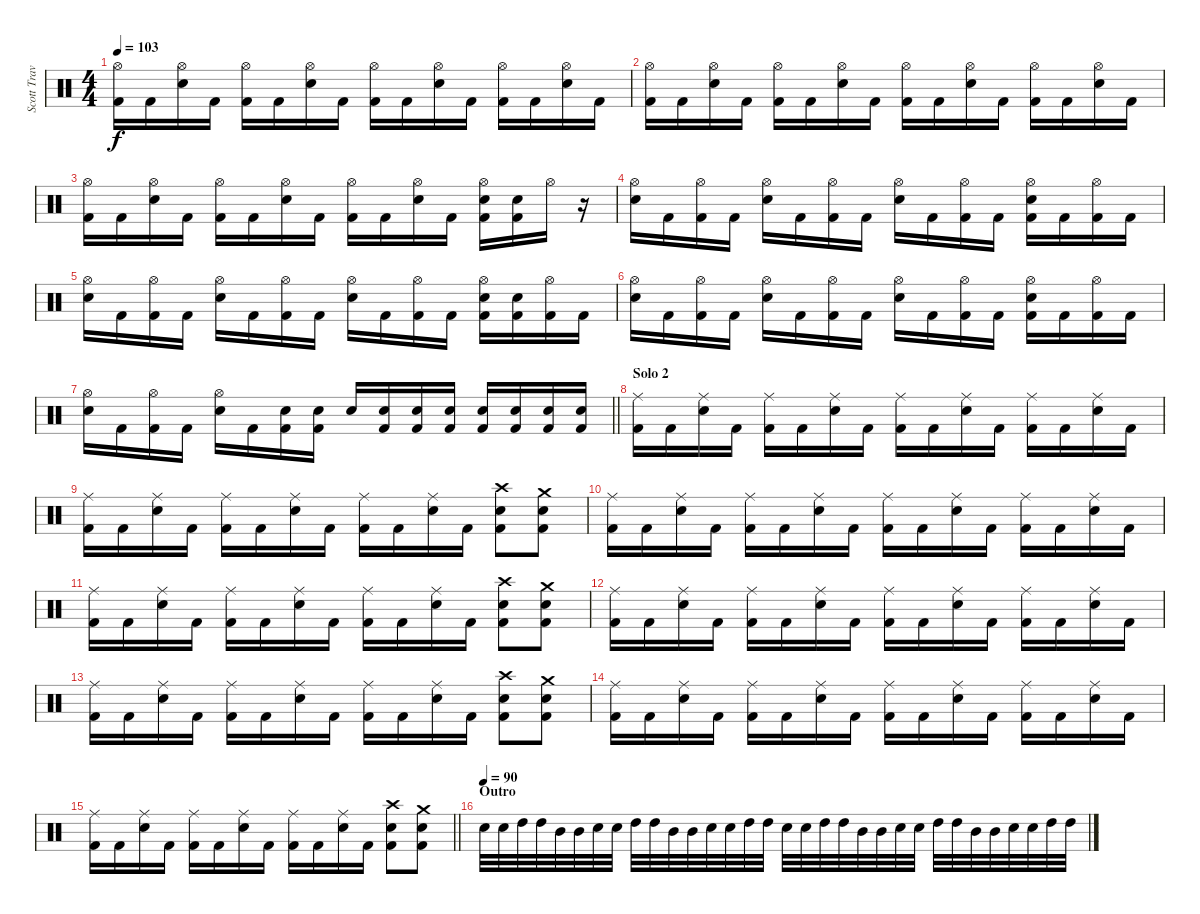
\track ("Scott Travis" "Scott Trav") {instrument percussion}
\staff {score}
\articulation defaults
\ts (4 4)
\tempo 103
\clef neutral
\ks c
("Hi-Hat (open)" "Kick (hit) 2").16{dy f} "Kick (hit) 2".16 ("Hi-Hat (open)" "Snare (hit) 2").16 "Kick (hit) 2".16 ("Hi-Hat (open)" "Kick (hit) 2").16 "Kick (hit) 2".16 ("Hi-Hat (open)" "Snare (hit) 2").16 "Kick (hit) 2".16 ("Hi-Hat (open)" "Kick (hit) 2").16 "Kick (hit) 2".16 ("Hi-Hat (open)" "Snare (hit) 2").16 "Kick (hit) 2".16 ("Hi-Hat (open)" "Kick (hit) 2").16 "Kick (hit) 2".16 ("Hi-Hat (open)" "Snare (hit) 2").16 "Kick (hit) 2".16 |
("Hi-Hat (open)" "Kick (hit) 2").16 "Kick (hit) 2".16 ("Hi-Hat (open)" "Snare (hit) 2").16 "Kick (hit) 2".16 ("Hi-Hat (open)" "Kick (hit) 2").16 "Kick (hit) 2".16 ("Hi-Hat (open)" "Snare (hit) 2").16 "Kick (hit) 2".16 ("Hi-Hat (open)" "Kick (hit) 2").16 "Kick (hit) 2".16 ("Hi-Hat (open)" "Snare (hit) 2").16 "Kick (hit) 2".16 ("Hi-Hat (open)" "Kick (hit) 2").16 "Kick (hit) 2".16 ("Hi-Hat (open)" "Snare (hit) 2").16 "Kick (hit) 2".16 |
("Hi-Hat (open)" "Kick (hit) 2").16 "Kick (hit) 2".16 ("Hi-Hat (open)" "Snare (hit) 2").16 "Kick (hit) 2".16 ("Hi-Hat (open)" "Kick (hit) 2").16 "Kick (hit) 2".16 ("Hi-Hat (open)" "Snare (hit) 2").16 "Kick (hit) 2".16 ("Hi-Hat (open)" "Kick (hit) 2").16 "Kick (hit) 2".16 ("Hi-Hat (open)" "Snare (hit) 2").16 "Kick (hit) 2".16 ("Hi-Hat (open)" "Snare (hit) 2" "Kick (hit) 2").16 ("Snare (hit) 2" "Kick (hit) 2").16 "Hi-Hat (open)".16 r.16 |
("Hi-Hat (open)" "Snare (hit) 2").16 "Kick (hit) 2".16 ("Hi-Hat (open)" "Kick (hit) 2").16 "Kick (hit) 2".16 ("Hi-Hat (open)" "Snare (hit) 2").16 "Kick (hit) 2".16 ("Hi-Hat (open)" "Kick (hit) 2").16 "Kick (hit) 2".16 ("Hi-Hat (open)" "Snare (hit) 2").16 "Kick (hit) 2".16 ("Hi-Hat (open)" "Kick (hit) 2").16 "Kick (hit) 2".16 ("Hi-Hat (open)" "Snare (hit) 2" "Kick (hit) 2").16 "Kick (hit) 2".16 ("Hi-Hat (open)" "Kick (hit) 2").16 "Kick (hit) 2".16 |
("Hi-Hat (open)" "Snare (hit) 2").16 "Kick (hit) 2".16 ("Hi-Hat (open)" "Kick (hit) 2").16 "Kick (hit) 2".16 ("Hi-Hat (open)" "Snare (hit) 2").16 "Kick (hit) 2".16 ("Hi-Hat (open)" "Kick (hit) 2").16 "Kick (hit) 2".16 ("Hi-Hat (open)" "Snare (hit) 2").16 "Kick (hit) 2".16 ("Hi-Hat (open)" "Kick (hit) 2").16 "Kick (hit) 2".16 ("Hi-Hat (open)" "Snare (hit) 2" "Kick (hit) 2").16 ("Snare (hit) 2" "Kick (hit) 2").16 ("Hi-Hat (open)" "Kick (hit) 2").16 "Kick (hit) 2".16 |
("Hi-Hat (open)" "Snare (hit) 2").16 "Kick (hit) 2".16 ("Hi-Hat (open)" "Kick (hit) 2").16 "Kick (hit) 2".16 ("Hi-Hat (open)" "Snare (hit) 2").16 "Kick (hit) 2".16 ("Hi-Hat (open)" "Kick (hit) 2").16 "Kick (hit) 2".16 ("Hi-Hat (open)" "Snare (hit) 2").16 "Kick (hit) 2".16 ("Hi-Hat (open)" "Kick (hit) 2").16 "Kick (hit) 2".16 ("Hi-Hat (open)" "Snare (hit) 2" "Kick (hit) 2").16 "Kick (hit) 2".16 ("Hi-Hat (open)" "Kick (hit) 2").16 "Kick (hit) 2".16 |
\barLineRight lightlight
("Hi-Hat (open)" "Snare (hit) 2").16 "Kick (hit) 2".16 ("Hi-Hat (open)" "Kick (hit) 2").16 "Kick (hit) 2".16 ("Hi-Hat (open)" "Snare (hit) 2").16 "Kick (hit) 2".16 ("Snare (hit) 2" "Kick (hit) 2").16 ("Snare (hit) 2" "Kick (hit) 2").16 "Snare (hit) 2".16 ("Snare (hit) 2" "Kick (hit) 2").16 ("Snare (hit) 2" "Kick (hit) 2").16 ("Snare (hit) 2" "Kick (hit) 2").16 ("Snare (hit) 2" "Kick (hit) 2").16 ("Snare (hit) 2" "Kick (hit) 2").16 ("Snare (hit) 2" "Kick (hit) 2").16 ("Snare (hit) 2" "Kick (hit) 2").16 |
\section ("" "Solo 2")
("Ride (middle)" "Kick (hit) 2").16 "Kick (hit) 2".16 ("Ride (middle)" "Snare (hit) 2").16 "Kick (hit) 2".16 ("Ride (middle)" "Kick (hit) 2").16 "Kick (hit) 2".16 ("Ride (middle)" "Snare (hit) 2").16 "Kick (hit) 2".16 ("Ride (middle)" "Kick (hit) 2").16 "Kick (hit) 2".16 ("Ride (middle)" "Snare (hit) 2").16 "Kick (hit) 2".16 ("Ride (middle)" "Kick (hit) 2").16 "Kick (hit) 2".16 ("Ride (middle)" "Snare (hit) 2").16 "Kick (hit) 2".16 |
("Ride (middle)" "Kick (hit) 2").16 "Kick (hit) 2".16 ("Ride (middle)" "Snare (hit) 2").16 "Kick (hit) 2".16 ("Ride (middle)" "Kick (hit) 2").16 "Kick (hit) 2".16 ("Ride (middle)" "Snare (hit) 2").16 "Kick (hit) 2".16 ("Ride (middle)" "Kick (hit) 2").16 "Kick (hit) 2".16 ("Ride (middle)" "Snare (hit) 2").16 "Kick (hit) 2".16 ("Crash high (hit)" "Snare (hit) 2" "Kick (hit) 2").8 ("Crash medium (hit)" "Snare (hit) 2" "Kick (hit) 2").8 |
("Ride (middle)" "Kick (hit) 2").16 "Kick (hit) 2".16 ("Ride (middle)" "Snare (hit) 2").16 "Kick (hit) 2".16 ("Ride (middle)" "Kick (hit) 2").16 "Kick (hit) 2".16 ("Ride (middle)" "Snare (hit) 2").16 "Kick (hit) 2".16 ("Ride (middle)" "Kick (hit) 2").16 "Kick (hit) 2".16 ("Ride (middle)" "Snare (hit) 2").16 "Kick (hit) 2".16 ("Ride (middle)" "Kick (hit) 2").16 "Kick (hit) 2".16 ("Ride (middle)" "Snare (hit) 2").16 "Kick (hit) 2".16 |
("Ride (middle)" "Kick (hit) 2").16 "Kick (hit) 2".16 ("Ride (middle)" "Snare (hit) 2").16 "Kick (hit) 2".16 ("Ride (middle)" "Kick (hit) 2").16 "Kick (hit) 2".16 ("Ride (middle)" "Snare (hit) 2").16 "Kick (hit) 2".16 ("Ride (middle)" "Kick (hit) 2").16 "Kick (hit) 2".16 ("Ride (middle)" "Snare (hit) 2").16 "Kick (hit) 2".16 ("Crash high (hit)" "Snare (hit) 2" "Kick (hit) 2").8 ("Crash medium (hit)" "Snare (hit) 2" "Kick (hit) 2").8 |
("Ride (middle)" "Kick (hit) 2").16 "Kick (hit) 2".16 ("Ride (middle)" "Snare (hit) 2").16 "Kick (hit) 2".16 ("Ride (middle)" "Kick (hit) 2").16 "Kick (hit) 2".16 ("Ride (middle)" "Snare (hit) 2").16 "Kick (hit) 2".16 ("Ride (middle)" "Kick (hit) 2").16 "Kick (hit) 2".16 ("Ride (middle)" "Snare (hit) 2").16 "Kick (hit) 2".16 ("Ride (middle)" "Kick (hit) 2").16 "Kick (hit) 2".16 ("Ride (middle)" "Snare (hit) 2").16 "Kick (hit) 2".16 |
("Ride (middle)" "Kick (hit) 2").16 "Kick (hit) 2".16 ("Ride (middle)" "Snare (hit) 2").16 "Kick (hit) 2".16 ("Ride (middle)" "Kick (hit) 2").16 "Kick (hit) 2".16 ("Ride (middle)" "Snare (hit) 2").16 "Kick (hit) 2".16 ("Ride (middle)" "Kick (hit) 2").16 "Kick (hit) 2".16 ("Ride (middle)" "Snare (hit) 2").16 "Kick (hit) 2".16 ("Crash high (hit)" "Snare (hit) 2" "Kick (hit) 2").8 ("Crash medium (hit)" "Snare (hit) 2" "Kick (hit) 2").8 |
("Ride (middle)" "Kick (hit) 2").16 "Kick (hit) 2".16 ("Ride (middle)" "Snare (hit) 2").16 "Kick (hit) 2".16 ("Ride (middle)" "Kick (hit) 2").16 "Kick (hit) 2".16 ("Ride (middle)" "Snare (hit) 2").16 "Kick (hit) 2".16 ("Ride (middle)" "Kick (hit) 2").16 "Kick (hit) 2".16 ("Ride (middle)" "Snare (hit) 2").16 "Kick (hit) 2".16 ("Ride (middle)" "Kick (hit) 2").16 "Kick (hit) 2".16 ("Ride (middle)" "Snare (hit) 2").16 "Kick (hit) 2".16 |
\barLineRight lightlight
("Ride (middle)" "Kick (hit) 2").16 "Kick (hit) 2".16 ("Ride (middle)" "Snare (hit) 2").16 "Kick (hit) 2".16 ("Ride (middle)" "Kick (hit) 2").16 "Kick (hit) 2".16 ("Ride (middle)" "Snare (hit) 2").16 "Kick (hit) 2".16 ("Ride (middle)" "Kick (hit) 2").16 "Kick (hit) 2".16 ("Ride (middle)" "Snare (hit) 2").16 "Kick (hit) 2".16 ("Crash high (hit)" "Snare (hit) 2" "Kick (hit) 2").8 ("Crash medium (hit)" "Snare (hit) 2" "Kick (hit) 2").8 |
\section ("" "Outro")
\tempo (90)
"Snare (hit) 2".32 "Snare (hit) 2".32 "High Tom (hit)".32 "High Tom (hit)".32 "Mid Tom (hit)".32 "Mid Tom (hit)".32 "Snare (hit) 2".32 "Snare (hit) 2".32 "High Tom (hit)".32 "High Tom (hit)".32 "Mid Tom (hit)".32 "Mid Tom (hit)".32 "Snare (hit) 2".32 "Snare (hit) 2".32 "High Tom (hit)".32 "High Tom (hit)".32 "Snare (hit) 2".32 "Snare (hit) 2".32 "High Tom (hit)".32 "High Tom (hit)".32 "Mid Tom (hit)".32 "Mid Tom (hit)".32 "Snare (hit) 2".32 "Snare (hit) 2".32 "High Tom (hit)".32 "High Tom (hit)".32 "Mid Tom (hit)".32 "Mid Tom (hit)".32 "Snare (hit) 2".32 "Snare (hit) 2".32 "High Tom (hit)".32 "High Tom (hit)".32
